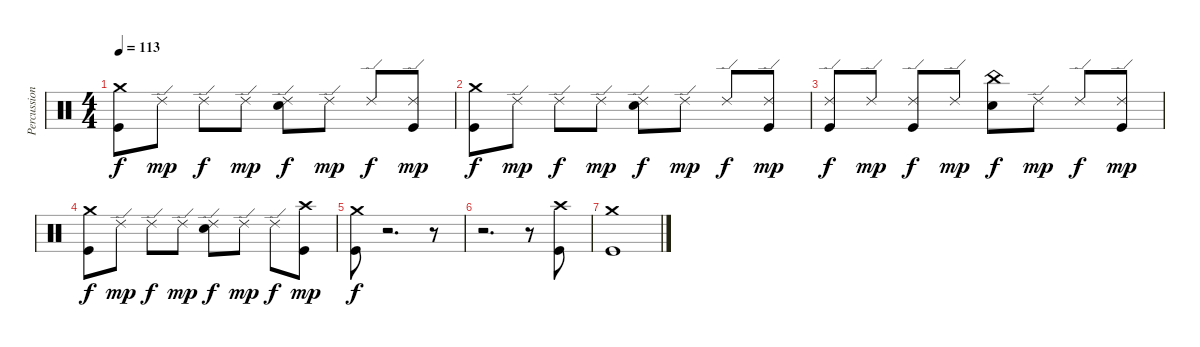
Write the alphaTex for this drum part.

\track ("Percussioni" "Percussion") {instrument percussion}
\staff {score}
\articulation defaults
\ts (4 4)
\tempo 113
\clef neutral
\ks c
("Crash medium (hit)" "Kick (hit)").8{dy f} "Ride (edge) 2".8{dy mp} "Ride (edge) 2".8{dy f} "Ride (edge) 2".8{dy mp} ("Ride (edge) 2" "Electric Snare (hit)").8{dy f} "Ride (edge) 2".8{dy mp} "Ride (edge) 2".8{dy f} ("Ride (edge) 2" "Kick (hit)").8{dy mp} |
("Crash medium (hit)" "Kick (hit)").8{dy f} "Ride (edge) 2".8{dy mp} "Ride (edge) 2".8{dy f} "Ride (edge) 2".8{dy mp} ("Ride (edge) 2" "Electric Snare (hit)").8{dy f} "Ride (edge) 2".8{dy mp} "Ride (edge) 2".8{dy f} ("Ride (edge) 2" "Kick (hit)").8{dy mp} |
("Ride (edge) 2" "Kick (hit)").8{dy f} "Ride (edge) 2".8{dy mp} ("Ride (edge) 2" "Kick (hit)").8{dy f} "Ride (edge) 2".8{dy mp} ("China (hit)" "Electric Snare (hit)").8{dy f} "Ride (edge) 2".8{dy mp} "Ride (edge) 2".8{dy f} ("Ride (edge) 2" "Kick (hit)").8{dy mp} |
("Crash medium (hit)" "Kick (hit)").8{dy f} "Ride (edge) 2".8{dy mp} "Ride (edge) 2".8{dy f} "Ride (edge) 2".8{dy mp} ("Ride (edge) 2" "Electric Snare (hit)").8{dy f} "Ride (edge) 2".8{dy mp} "Ride (edge) 2".8{dy f} ("Crash high (hit)" "Kick (hit)").8{dy mp} |
("Crash medium (hit)" "Kick (hit)").8{dy f} r.2{d} r.8 |
r.2{d} r.8 ("Crash high (hit)" "Kick (hit)").8 |
("Crash medium (hit)" "Kick (hit)").1
